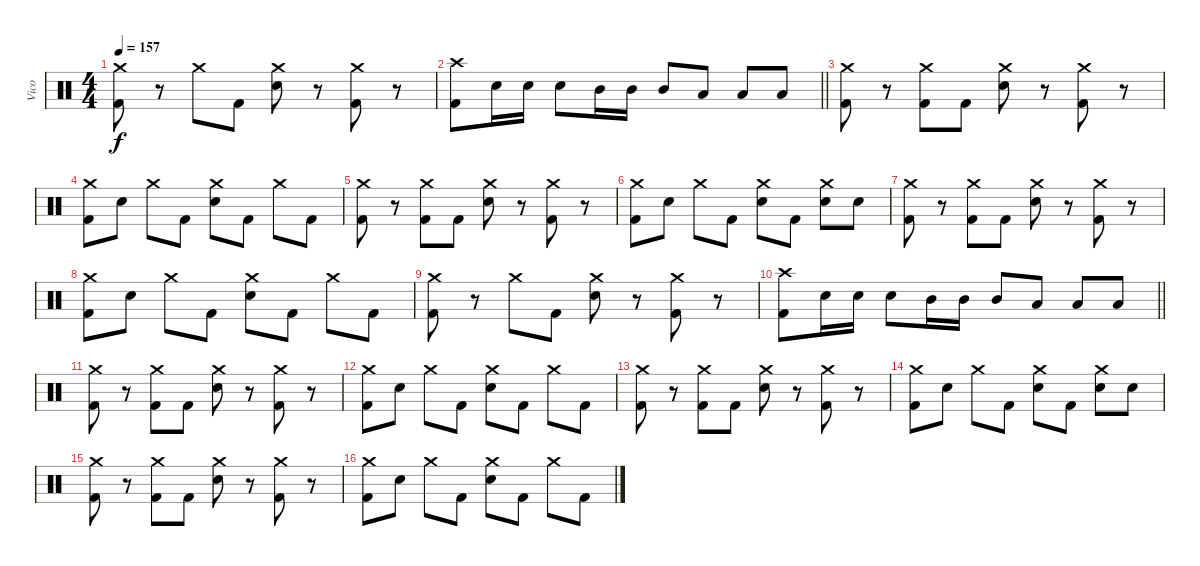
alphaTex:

\track ("Vico" "Vico") {instrument percussion}
\staff {score}
\articulation defaults
\ts (4 4)
\tempo 157
\clef neutral
\ks c
("Crash medium (hit)" "Kick (hit) 2").8{dy f} r.8 "Crash medium (hit)".8 "Kick (hit) 2".8 ("Crash medium (hit)" "Electric Snare (hit)").8 r.8 ("Crash medium (hit)" "Kick (hit) 2").8 r.8 |
\barLineRight lightlight
("Crash high (hit)" "Kick (hit) 2").8 "Electric Snare (hit)".16 "Electric Snare (hit)".16 "Electric Snare (hit)".8 "Mid Tom (hit)".16 "Mid Tom (hit)".16 "Mid Tom (hit)".8 "Low Tom (hit)".8 "Low Tom (hit)".8 "Low Tom (hit)".8 |
("Crash medium (hit)" "Kick (hit) 2").8 r.8 ("Crash medium (hit)" "Kick (hit) 2").8 "Kick (hit) 2".8 ("Crash medium (hit)" "Electric Snare (hit)").8 r.8 ("Crash medium (hit)" "Kick (hit) 2").8 r.8 |
("Crash medium (hit)" "Kick (hit) 2").8 "Electric Snare (hit)".8 "Crash medium (hit)".8 "Kick (hit) 2".8 ("Crash medium (hit)" "Electric Snare (hit)").8 "Kick (hit) 2".8 "Crash medium (hit)".8 "Kick (hit) 2".8 |
("Crash medium (hit)" "Kick (hit) 2").8 r.8 ("Crash medium (hit)" "Kick (hit) 2").8 "Kick (hit) 2".8 ("Crash medium (hit)" "Electric Snare (hit)").8 r.8 ("Crash medium (hit)" "Kick (hit) 2").8 r.8 |
("Crash medium (hit)" "Kick (hit) 2").8 "Electric Snare (hit)".8 "Crash medium (hit)".8 "Kick (hit) 2".8 ("Crash medium (hit)" "Electric Snare (hit)").8 "Kick (hit) 2".8 ("Crash medium (hit)" "Electric Snare (hit)").8 "Electric Snare (hit)".8 |
("Crash medium (hit)" "Kick (hit) 2").8 r.8 ("Crash medium (hit)" "Kick (hit) 2").8 "Kick (hit) 2".8 ("Crash medium (hit)" "Electric Snare (hit)").8 r.8 ("Crash medium (hit)" "Kick (hit) 2").8 r.8 |
("Crash medium (hit)" "Kick (hit) 2").8 "Electric Snare (hit)".8 "Crash medium (hit)".8 "Kick (hit) 2".8 ("Crash medium (hit)" "Electric Snare (hit)").8 "Kick (hit) 2".8 "Crash medium (hit)".8 "Kick (hit) 2".8 |
("Crash medium (hit)" "Kick (hit) 2").8 r.8 "Crash medium (hit)".8 "Kick (hit) 2".8 ("Crash medium (hit)" "Electric Snare (hit)").8 r.8 ("Crash medium (hit)" "Kick (hit) 2").8 r.8 |
\barLineRight lightlight
("Crash high (hit)" "Kick (hit) 2").8 "Electric Snare (hit)".16 "Electric Snare (hit)".16 "Electric Snare (hit)".8 "Mid Tom (hit)".16 "Mid Tom (hit)".16 "Mid Tom (hit)".8 "Low Tom (hit)".8 "Low Tom (hit)".8 "Low Tom (hit)".8 |
("Crash medium (hit)" "Kick (hit) 2").8 r.8 ("Crash medium (hit)" "Kick (hit) 2").8 "Kick (hit) 2".8 ("Crash medium (hit)" "Electric Snare (hit)").8 r.8 ("Crash medium (hit)" "Kick (hit) 2").8 r.8 |
("Crash medium (hit)" "Kick (hit) 2").8 "Electric Snare (hit)".8 "Crash medium (hit)".8 "Kick (hit) 2".8 ("Crash medium (hit)" "Electric Snare (hit)").8 "Kick (hit) 2".8 "Crash medium (hit)".8 "Kick (hit) 2".8 |
("Crash medium (hit)" "Kick (hit) 2").8 r.8 ("Crash medium (hit)" "Kick (hit) 2").8 "Kick (hit) 2".8 ("Crash medium (hit)" "Electric Snare (hit)").8 r.8 ("Crash medium (hit)" "Kick (hit) 2").8 r.8 |
("Crash medium (hit)" "Kick (hit) 2").8 "Electric Snare (hit)".8 "Crash medium (hit)".8 "Kick (hit) 2".8 ("Crash medium (hit)" "Electric Snare (hit)").8 "Kick (hit) 2".8 ("Crash medium (hit)" "Electric Snare (hit)").8 "Electric Snare (hit)".8 |
("Crash medium (hit)" "Kick (hit) 2").8 r.8 ("Crash medium (hit)" "Kick (hit) 2").8 "Kick (hit) 2".8 ("Crash medium (hit)" "Electric Snare (hit)").8 r.8 ("Crash medium (hit)" "Kick (hit) 2").8 r.8 |
("Crash medium (hit)" "Kick (hit) 2").8 "Electric Snare (hit)".8 "Crash medium (hit)".8 "Kick (hit) 2".8 ("Crash medium (hit)" "Electric Snare (hit)").8 "Kick (hit) 2".8 "Crash medium (hit)".8 "Kick (hit) 2".8
